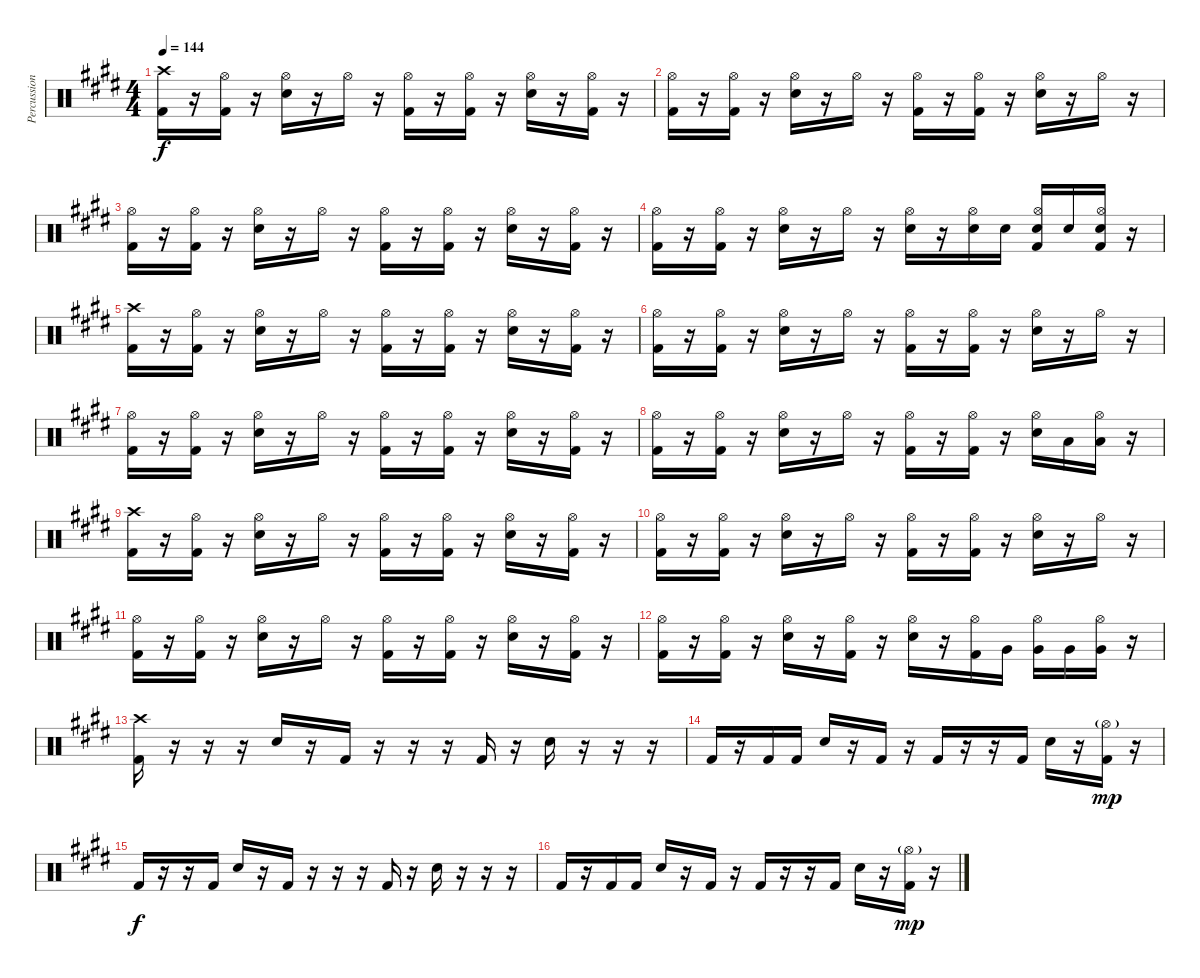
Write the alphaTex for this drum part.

\track ("Percussion" "Percussion") {instrument percussion}
\staff {score}
\articulation defaults
\ts (4 4)
\tempo 144
\clef neutral
\ks e
("Crash high (hit)" "Kick (hit) 2").16{dy f} r.16 ("Hi-Hat (open)" "Kick (hit) 2").16 r.16 ("Hi-Hat (open)" "Snare (hit) 2").16 r.16 "Hi-Hat (open)".16 r.16 ("Hi-Hat (open)" "Kick (hit) 2").16 r.16 ("Hi-Hat (open)" "Kick (hit) 2").16 r.16 ("Hi-Hat (open)" "Snare (hit) 2").16 r.16 ("Hi-Hat (open)" "Kick (hit) 2").16 r.16 |
("Hi-Hat (open)" "Kick (hit) 2").16 r.16 ("Hi-Hat (open)" "Kick (hit) 2").16 r.16 ("Hi-Hat (open)" "Snare (hit) 2").16 r.16 "Hi-Hat (open)".16 r.16 ("Hi-Hat (open)" "Kick (hit) 2").16 r.16 ("Hi-Hat (open)" "Kick (hit) 2").16 r.16 ("Hi-Hat (open)" "Snare (hit) 2").16 r.16 "Hi-Hat (open)".16 r.16 |
("Hi-Hat (open)" "Kick (hit) 2").16 r.16 ("Hi-Hat (open)" "Kick (hit) 2").16 r.16 ("Hi-Hat (open)" "Snare (hit) 2").16 r.16 "Hi-Hat (open)".16 r.16 ("Hi-Hat (open)" "Kick (hit) 2").16 r.16 ("Hi-Hat (open)" "Kick (hit) 2").16 r.16 ("Hi-Hat (open)" "Snare (hit) 2").16 r.16 ("Hi-Hat (open)" "Kick (hit) 2").16 r.16 |
("Hi-Hat (open)" "Kick (hit) 2").16 r.16 ("Hi-Hat (open)" "Kick (hit) 2").16 r.16 ("Hi-Hat (open)" "Snare (hit) 2").16 r.16 "Hi-Hat (open)".16 r.16 ("Hi-Hat (open)" "Snare (hit) 2").16 r.16 ("Hi-Hat (open)" "Electric Snare (hit)").16 "Electric Snare (hit)".16 ("Hi-Hat (open)" "Electric Snare (hit)" "Kick (hit) 2").16 "Electric Snare (hit)".16 ("Hi-Hat (open)" "Electric Snare (hit)" "Kick (hit) 2").16 r.16 |
("Crash high (hit)" "Kick (hit) 2").16 r.16 ("Hi-Hat (open)" "Kick (hit) 2").16 r.16 ("Hi-Hat (open)" "Snare (hit) 2").16 r.16 "Hi-Hat (open)".16 r.16 ("Hi-Hat (open)" "Kick (hit) 2").16 r.16 ("Hi-Hat (open)" "Kick (hit) 2").16 r.16 ("Hi-Hat (open)" "Snare (hit) 2").16 r.16 ("Hi-Hat (open)" "Kick (hit) 2").16 r.16 |
("Hi-Hat (open)" "Kick (hit) 2").16 r.16 ("Hi-Hat (open)" "Kick (hit) 2").16 r.16 ("Hi-Hat (open)" "Snare (hit) 2").16 r.16 "Hi-Hat (open)".16 r.16 ("Hi-Hat (open)" "Kick (hit) 2").16 r.16 ("Hi-Hat (open)" "Kick (hit) 2").16 r.16 ("Hi-Hat (open)" "Snare (hit) 2").16 r.16 "Hi-Hat (open)".16 r.16 |
("Hi-Hat (open)" "Kick (hit) 2").16 r.16 ("Hi-Hat (open)" "Kick (hit) 2").16 r.16 ("Hi-Hat (open)" "Snare (hit) 2").16 r.16 "Hi-Hat (open)".16 r.16 ("Hi-Hat (open)" "Kick (hit) 2").16 r.16 ("Hi-Hat (open)" "Kick (hit) 2").16 r.16 ("Hi-Hat (open)" "Snare (hit) 2").16 r.16 ("Hi-Hat (open)" "Kick (hit) 2").16 r.16 |
("Hi-Hat (open)" "Kick (hit) 2").16 r.16 ("Hi-Hat (open)" "Kick (hit) 2").16 r.16 ("Hi-Hat (open)" "Snare (hit) 2").16 r.16 "Hi-Hat (open)".16 r.16 ("Hi-Hat (open)" "Kick (hit) 2").16 r.16 ("Hi-Hat (open)" "Kick (hit) 2").16 r.16 ("Hi-Hat (open)" "Snare (hit) 2").16 "Low Tom (hit)".16 ("Hi-Hat (open)" "Low Tom (hit)").16 r.16 |
("Crash high (hit)" "Kick (hit) 2").16 r.16 ("Hi-Hat (open)" "Kick (hit) 2").16 r.16 ("Hi-Hat (open)" "Snare (hit) 2").16 r.16 "Hi-Hat (open)".16 r.16 ("Hi-Hat (open)" "Kick (hit) 2").16 r.16 ("Hi-Hat (open)" "Kick (hit) 2").16 r.16 ("Hi-Hat (open)" "Snare (hit) 2").16 r.16 ("Hi-Hat (open)" "Kick (hit) 2").16 r.16 |
("Hi-Hat (open)" "Kick (hit) 2").16 r.16 ("Hi-Hat (open)" "Kick (hit) 2").16 r.16 ("Hi-Hat (open)" "Snare (hit) 2").16 r.16 "Hi-Hat (open)".16 r.16 ("Hi-Hat (open)" "Kick (hit) 2").16 r.16 ("Hi-Hat (open)" "Kick (hit) 2").16 r.16 ("Hi-Hat (open)" "Snare (hit) 2").16 r.16 "Hi-Hat (open)".16 r.16 |
("Hi-Hat (open)" "Kick (hit) 2").16 r.16 ("Hi-Hat (open)" "Kick (hit) 2").16 r.16 ("Hi-Hat (open)" "Snare (hit) 2").16 r.16 "Hi-Hat (open)".16 r.16 ("Hi-Hat (open)" "Kick (hit) 2").16 r.16 ("Hi-Hat (open)" "Kick (hit) 2").16 r.16 ("Hi-Hat (open)" "Snare (hit) 2").16 r.16 ("Hi-Hat (open)" "Kick (hit) 2").16 r.16 |
("Hi-Hat (open)" "Kick (hit) 2").16 r.16 ("Hi-Hat (open)" "Kick (hit) 2").16 r.16 ("Hi-Hat (open)" "Snare (hit) 2").16 r.16 ("Hi-Hat (open)" "Kick (hit) 2").16 r.16 ("Hi-Hat (open)" "Snare (hit) 2").16 r.16 ("Hi-Hat (open)" "Kick (hit) 2").16 "Very Low Tom (hit)".16 ("Hi-Hat (open)" "Very Low Tom (hit)").16 "Very Low Tom (hit)".16 ("Hi-Hat (open)" "Very Low Tom (hit)").16 r.16 |
("Crash high (hit)" "Kick (hit) 2").16 r.16 r.16 r.16 "Snare (hit) 2".16 r.16 "Kick (hit) 2".16 r.16 r.16 r.16 "Kick (hit) 2".16 r.16 "Snare (hit) 2".16 r.16 r.16 r.16 |
"Kick (hit) 2".16 r.16 "Kick (hit) 2".16 "Kick (hit) 2".16 "Snare (hit) 2".16 r.16 "Kick (hit) 2".16 r.16 "Kick (hit) 2".16 r.16 r.16 "Kick (hit) 2".16 "Snare (hit) 2".16 r.16 ("Hi-Hat (open)"{g} "Kick (hit) 2").16{dy mp} r.16 |
"Kick (hit) 2".16{dy f} r.16 r.16 "Kick (hit) 2".16 "Snare (hit) 2".16 r.16 "Kick (hit) 2".16 r.16 r.16 r.16 "Kick (hit) 2".16 r.16 "Snare (hit) 2".16 r.16 r.16 r.16 |
"Kick (hit) 2".16 r.16 "Kick (hit) 2".16 "Kick (hit) 2".16 "Snare (hit) 2".16 r.16 "Kick (hit) 2".16 r.16 "Kick (hit) 2".16 r.16 r.16 "Kick (hit) 2".16 "Snare (hit) 2".16 r.16 ("Hi-Hat (open)"{g} "Kick (hit) 2").16{dy mp} r.16
